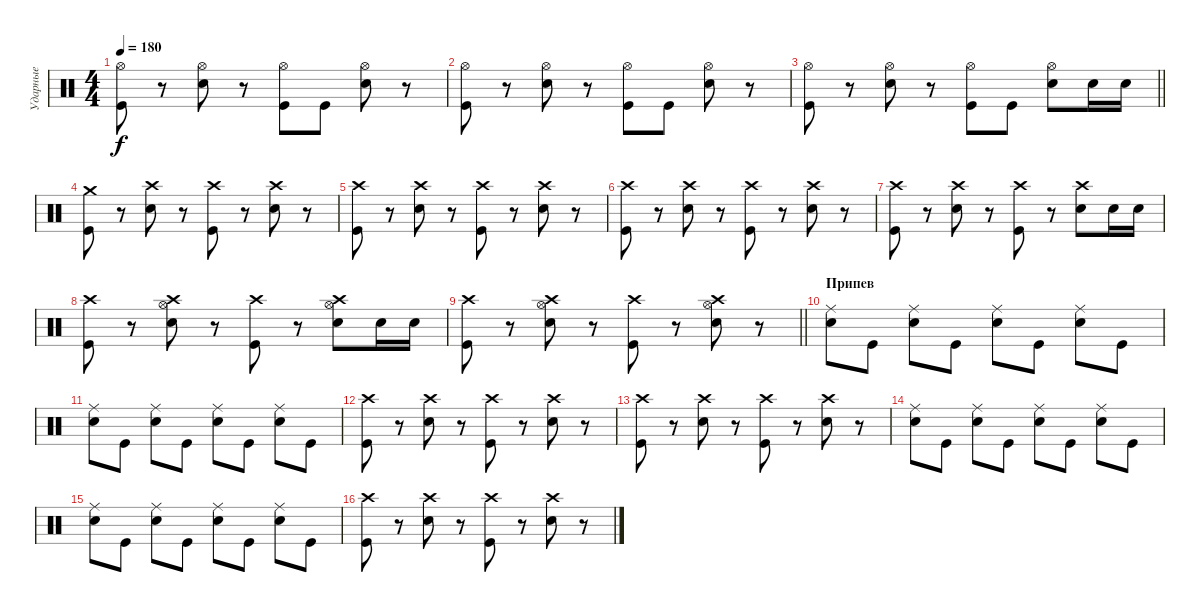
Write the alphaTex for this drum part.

\track ("Ударные" "Ударные") {instrument percussion}
\staff {score}
\articulation defaults
\ts (4 4)
\tempo 180
\clef neutral
\ks c
("Hi-Hat (open)" "Kick (hit)").8{dy f} r.8 ("Hi-Hat (open)" "Electric Snare (hit)").8 r.8 ("Hi-Hat (open)" "Kick (hit)").8 "Kick (hit)".8 ("Hi-Hat (open)" "Electric Snare (hit)").8 r.8 |
("Hi-Hat (open)" "Kick (hit)").8 r.8 ("Hi-Hat (open)" "Electric Snare (hit)").8 r.8 ("Hi-Hat (open)" "Kick (hit)").8 "Kick (hit)".8 ("Hi-Hat (open)" "Electric Snare (hit)").8 r.8 |
\barLineRight lightlight
("Hi-Hat (open)" "Kick (hit)").8 r.8 ("Hi-Hat (open)" "Electric Snare (hit)").8 r.8 ("Hi-Hat (open)" "Kick (hit)").8 "Kick (hit)".8 ("Hi-Hat (open)" "Electric Snare (hit)").8 "Electric Snare (hit)".16 "Electric Snare (hit)".16 |
\section ("" " ")
("Crash medium (hit)" "Kick (hit)").8 r.8 ("Crash high (hit)" "Electric Snare (hit)").8 r.8 ("Crash high (hit)" "Kick (hit)").8 r.8 ("Crash high (hit)" "Electric Snare (hit)").8 r.8 |
("Crash high (hit)" "Kick (hit)").8 r.8 ("Crash high (hit)" "Electric Snare (hit)").8 r.8 ("Crash high (hit)" "Kick (hit)").8 r.8 ("Crash high (hit)" "Electric Snare (hit)").8 r.8 |
("Crash high (hit)" "Kick (hit)").8 r.8 ("Crash high (hit)" "Electric Snare (hit)").8 r.8 ("Crash high (hit)" "Kick (hit)").8 r.8 ("Crash high (hit)" "Electric Snare (hit)").8 r.8 |
("Crash high (hit)" "Kick (hit)").8 r.8 ("Crash high (hit)" "Electric Snare (hit)").8 r.8 ("Crash high (hit)" "Kick (hit)").8 r.8 ("Crash high (hit)" "Electric Snare (hit)").8 "Electric Snare (hit)".16 "Electric Snare (hit)".16 |
("Crash high (hit)" "Kick (hit)").8 r.8 ("Crash high (hit)" "Hi-Hat (open)" "Electric Snare (hit)").8 r.8 ("Crash high (hit)" "Kick (hit)").8 r.8 ("Crash high (hit)" "Hi-Hat (open)" "Electric Snare (hit)").8 "Electric Snare (hit)".16 "Electric Snare (hit)".16 |
\barLineRight lightlight
("Crash high (hit)" "Kick (hit)").8 r.8 ("Crash high (hit)" "Hi-Hat (open)" "Electric Snare (hit)").8 r.8 ("Crash high (hit)" "Kick (hit)").8 r.8 ("Crash high (hit)" "Hi-Hat (open)" "Electric Snare (hit)").8 r.8 |
\section ("" "Припев")
("Ride (middle)" "Electric Snare (hit)").8 "Kick (hit)".8 ("Ride (middle)" "Electric Snare (hit)").8 "Kick (hit)".8 ("Ride (middle)" "Electric Snare (hit)").8 "Kick (hit)".8 ("Ride (middle)" "Electric Snare (hit)").8 "Kick (hit)".8 |
("Ride (middle)" "Electric Snare (hit)").8 "Kick (hit)".8 ("Ride (middle)" "Electric Snare (hit)").8 "Kick (hit)".8 ("Ride (middle)" "Electric Snare (hit)").8 "Kick (hit)".8 ("Ride (middle)" "Electric Snare (hit)").8 "Kick (hit)".8 |
("Crash high (hit)" "Kick (hit)").8 r.8 ("Crash high (hit)" "Electric Snare (hit)").8 r.8 ("Crash high (hit)" "Kick (hit)").8 r.8 ("Crash high (hit)" "Electric Snare (hit)").8 r.8 |
("Crash high (hit)" "Kick (hit)").8 r.8 ("Crash high (hit)" "Electric Snare (hit)").8 r.8 ("Crash high (hit)" "Kick (hit)").8 r.8 ("Crash high (hit)" "Electric Snare (hit)").8 r.8 |
("Ride (middle)" "Electric Snare (hit)").8 "Kick (hit)".8 ("Ride (middle)" "Electric Snare (hit)").8 "Kick (hit)".8 ("Ride (middle)" "Electric Snare (hit)").8 "Kick (hit)".8 ("Ride (middle)" "Electric Snare (hit)").8 "Kick (hit)".8 |
("Ride (middle)" "Electric Snare (hit)").8 "Kick (hit)".8 ("Ride (middle)" "Electric Snare (hit)").8 "Kick (hit)".8 ("Ride (middle)" "Electric Snare (hit)").8 "Kick (hit)".8 ("Ride (middle)" "Electric Snare (hit)").8 "Kick (hit)".8 |
("Crash high (hit)" "Kick (hit)").8 r.8 ("Crash high (hit)" "Electric Snare (hit)").8 r.8 ("Crash high (hit)" "Kick (hit)").8 r.8 ("Crash high (hit)" "Electric Snare (hit)").8 r.8
